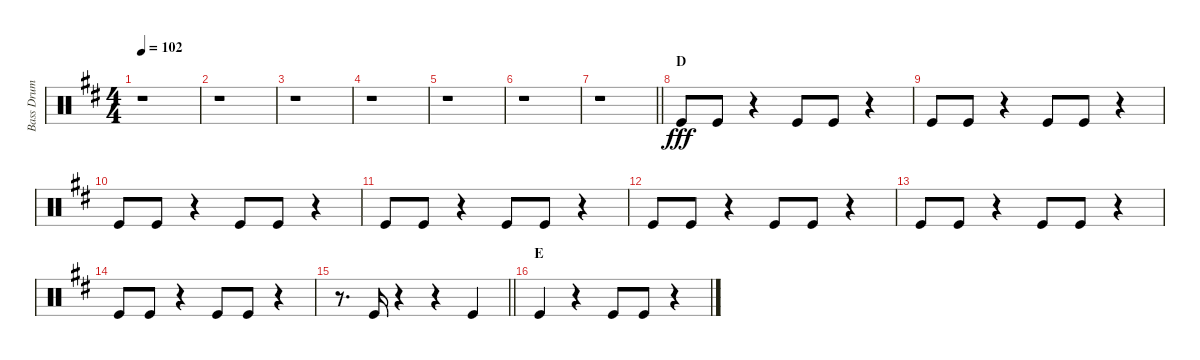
\track ("Bass Drum" "Bass Drum") {instrument percussion}
\staff {score}
\articulation defaults
\ts (4 4)
\tempo 102
\clef neutral
\ks d
r.1{dy fff} |
r.1 |
r.1 |
r.1 |
r.1 |
r.1 |
\barLineRight lightlight
r.1 |
\section ("" "D")
"Kick (hit)".8 "Kick (hit)".8 r.4 "Kick (hit)".8 "Kick (hit)".8 r.4 |
"Kick (hit)".8 "Kick (hit)".8 r.4 "Kick (hit)".8 "Kick (hit)".8 r.4 |
"Kick (hit)".8 "Kick (hit)".8 r.4 "Kick (hit)".8 "Kick (hit)".8 r.4 |
"Kick (hit)".8 "Kick (hit)".8 r.4 "Kick (hit)".8 "Kick (hit)".8 r.4 |
"Kick (hit)".8 "Kick (hit)".8 r.4 "Kick (hit)".8 "Kick (hit)".8 r.4 |
"Kick (hit)".8 "Kick (hit)".8 r.4 "Kick (hit)".8 "Kick (hit)".8 r.4 |
"Kick (hit)".8 "Kick (hit)".8 r.4 "Kick (hit)".8 "Kick (hit)".8 r.4 |
\barLineRight lightlight
r.8{d} "Kick (hit)".16 r.4 r.4 "Kick (hit)".4 |
\section ("" "E")
"Kick (hit)".4 r.4 "Kick (hit)".8 "Kick (hit)".8 r.4
